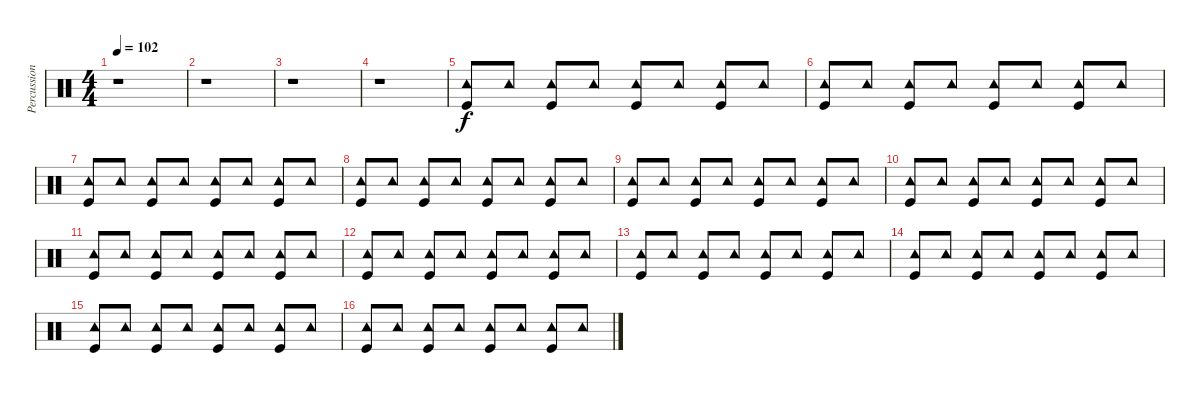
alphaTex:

\track ("Percussion" "Percussion") {instrument percussion}
\staff {score}
\articulation defaults
\ts (4 4)
\tempo 102
\clef neutral
\ks c
r.1{dy f} |
r.1 |
r.1 |
r.1 |
("Tambourine (hit)" "Kick (hit)").8 "Tambourine (hit)".8 ("Tambourine (hit)" "Kick (hit)").8 "Tambourine (hit)".8 ("Tambourine (hit)" "Kick (hit)").8 "Tambourine (hit)".8 ("Tambourine (hit)" "Kick (hit)").8 "Tambourine (hit)".8 |
("Tambourine (hit)" "Kick (hit)").8 "Tambourine (hit)".8 ("Tambourine (hit)" "Kick (hit)").8 "Tambourine (hit)".8 ("Tambourine (hit)" "Kick (hit)").8 "Tambourine (hit)".8 ("Tambourine (hit)" "Kick (hit)").8 "Tambourine (hit)".8 |
("Tambourine (hit)" "Kick (hit)").8 "Tambourine (hit)".8 ("Tambourine (hit)" "Kick (hit)").8 "Tambourine (hit)".8 ("Tambourine (hit)" "Kick (hit)").8 "Tambourine (hit)".8 ("Tambourine (hit)" "Kick (hit)").8 "Tambourine (hit)".8 |
("Tambourine (hit)" "Kick (hit)").8 "Tambourine (hit)".8 ("Tambourine (hit)" "Kick (hit)").8 "Tambourine (hit)".8 ("Tambourine (hit)" "Kick (hit)").8 "Tambourine (hit)".8 ("Tambourine (hit)" "Kick (hit)").8 "Tambourine (hit)".8 |
("Tambourine (hit)" "Kick (hit)").8 "Tambourine (hit)".8 ("Tambourine (hit)" "Kick (hit)").8 "Tambourine (hit)".8 ("Tambourine (hit)" "Kick (hit)").8 "Tambourine (hit)".8 ("Tambourine (hit)" "Kick (hit)").8 "Tambourine (hit)".8 |
("Tambourine (hit)" "Kick (hit)").8 "Tambourine (hit)".8 ("Tambourine (hit)" "Kick (hit)").8 "Tambourine (hit)".8 ("Tambourine (hit)" "Kick (hit)").8 "Tambourine (hit)".8 ("Tambourine (hit)" "Kick (hit)").8 "Tambourine (hit)".8 |
("Tambourine (hit)" "Kick (hit)").8 "Tambourine (hit)".8 ("Tambourine (hit)" "Kick (hit)").8 "Tambourine (hit)".8 ("Tambourine (hit)" "Kick (hit)").8 "Tambourine (hit)".8 ("Tambourine (hit)" "Kick (hit)").8 "Tambourine (hit)".8 |
("Tambourine (hit)" "Kick (hit)").8 "Tambourine (hit)".8 ("Tambourine (hit)" "Kick (hit)").8 "Tambourine (hit)".8 ("Tambourine (hit)" "Kick (hit)").8 "Tambourine (hit)".8 ("Tambourine (hit)" "Kick (hit)").8 "Tambourine (hit)".8 |
("Tambourine (hit)" "Kick (hit)").8 "Tambourine (hit)".8 ("Tambourine (hit)" "Kick (hit)").8 "Tambourine (hit)".8 ("Tambourine (hit)" "Kick (hit)").8 "Tambourine (hit)".8 ("Tambourine (hit)" "Kick (hit)").8 "Tambourine (hit)".8 |
("Tambourine (hit)" "Kick (hit)").8 "Tambourine (hit)".8 ("Tambourine (hit)" "Kick (hit)").8 "Tambourine (hit)".8 ("Tambourine (hit)" "Kick (hit)").8 "Tambourine (hit)".8 ("Tambourine (hit)" "Kick (hit)").8 "Tambourine (hit)".8 |
("Tambourine (hit)" "Kick (hit)").8 "Tambourine (hit)".8 ("Tambourine (hit)" "Kick (hit)").8 "Tambourine (hit)".8 ("Tambourine (hit)" "Kick (hit)").8 "Tambourine (hit)".8 ("Tambourine (hit)" "Kick (hit)").8 "Tambourine (hit)".8 |
("Tambourine (hit)" "Kick (hit)").8 "Tambourine (hit)".8 ("Tambourine (hit)" "Kick (hit)").8 "Tambourine (hit)".8 ("Tambourine (hit)" "Kick (hit)").8 "Tambourine (hit)".8 ("Tambourine (hit)" "Kick (hit)").8 "Tambourine (hit)".8
